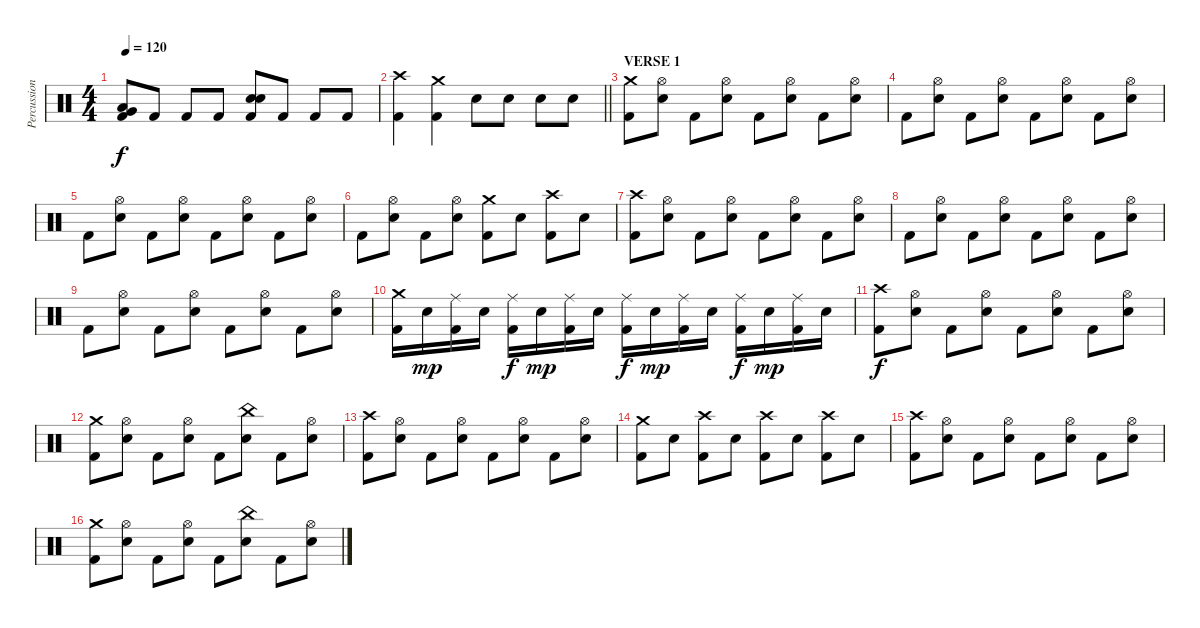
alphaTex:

\track ("Percussion" "Percussion") {instrument percussion}
\staff {score}
\articulation defaults
\ts (4 4)
\tempo 120
\clef neutral
\ks c
("Low Tom (hit)" "Very Low Tom (hit)" "Kick (hit) 2").8{bu 120 dy f} "Kick (hit) 2".8 "Kick (hit) 2".8 "Kick (hit) 2".8 ("Electric Snare (hit)" "Electric Snare (hit)" "Kick (hit) 2").8{bu 120} "Kick (hit) 2".8 "Kick (hit) 2".8 "Kick (hit) 2".8 |
\barLineRight lightlight
("Crash high (hit)" "Kick (hit) 2").4 ("Crash medium (hit)" "Kick (hit) 2").4 "Electric Snare (hit)".8 "Electric Snare (hit)".8 "Electric Snare (hit)".8 "Electric Snare (hit)".8 |
\section ("" "VERSE 1")
("Crash medium (hit)" "Kick (hit) 2").8 ("Hi-Hat (open)" "Electric Snare (hit)").8 "Kick (hit) 2".8 ("Hi-Hat (open)" "Electric Snare (hit)").8 "Kick (hit) 2".8 ("Hi-Hat (open)" "Electric Snare (hit)").8 "Kick (hit) 2".8 ("Hi-Hat (open)" "Electric Snare (hit)").8 |
"Kick (hit) 2".8 ("Hi-Hat (open)" "Electric Snare (hit)").8 "Kick (hit) 2".8 ("Hi-Hat (open)" "Electric Snare (hit)").8 "Kick (hit) 2".8 ("Hi-Hat (open)" "Electric Snare (hit)").8 "Kick (hit) 2".8 ("Hi-Hat (open)" "Electric Snare (hit)").8 |
"Kick (hit) 2".8 ("Hi-Hat (open)" "Electric Snare (hit)").8 "Kick (hit) 2".8 ("Hi-Hat (open)" "Electric Snare (hit)").8 "Kick (hit) 2".8 ("Hi-Hat (open)" "Electric Snare (hit)").8 "Kick (hit) 2".8 ("Hi-Hat (open)" "Electric Snare (hit)").8 |
"Kick (hit) 2".8 ("Hi-Hat (open)" "Electric Snare (hit)").8 "Kick (hit) 2".8 ("Hi-Hat (open)" "Electric Snare (hit)").8 ("Crash medium (hit)" "Kick (hit) 2").8 "Electric Snare (hit)".8 ("Crash high (hit)" "Kick (hit) 2").8 "Electric Snare (hit)".8 |
("Crash high (hit)" "Kick (hit) 2").8 ("Hi-Hat (open)" "Electric Snare (hit)").8 "Kick (hit) 2".8 ("Hi-Hat (open)" "Electric Snare (hit)").8 "Kick (hit) 2".8 ("Hi-Hat (open)" "Electric Snare (hit)").8 "Kick (hit) 2".8 ("Hi-Hat (open)" "Electric Snare (hit)").8 |
"Kick (hit) 2".8 ("Hi-Hat (open)" "Electric Snare (hit)").8 "Kick (hit) 2".8 ("Hi-Hat (open)" "Electric Snare (hit)").8 "Kick (hit) 2".8 ("Hi-Hat (open)" "Electric Snare (hit)").8 "Kick (hit) 2".8 ("Hi-Hat (open)" "Electric Snare (hit)").8 |
"Kick (hit) 2".8 ("Hi-Hat (open)" "Electric Snare (hit)").8 "Kick (hit) 2".8 ("Hi-Hat (open)" "Electric Snare (hit)").8 "Kick (hit) 2".8 ("Hi-Hat (open)" "Electric Snare (hit)").8 "Kick (hit) 2".8 ("Hi-Hat (open)" "Electric Snare (hit)").8 |
("Crash medium (hit)" "Kick (hit) 2").16 "Electric Snare (hit)".16{dy mp} ("Ride (middle)" "Kick (hit) 2").16 "Electric Snare (hit)".16 ("Ride (middle)" "Kick (hit) 2").16{dy f} "Electric Snare (hit)".16{dy mp} ("Ride (middle)" "Kick (hit) 2").16 "Electric Snare (hit)".16 ("Ride (middle)" "Kick (hit) 2").16{dy f} "Electric Snare (hit)".16{dy mp} ("Ride (middle)" "Kick (hit) 2").16 "Electric Snare (hit)".16 ("Ride (middle)" "Kick (hit) 2").16{dy f} "Electric Snare (hit)".16{dy mp} ("Ride (middle)" "Kick (hit) 2").16 "Electric Snare (hit)".16 |
("Crash high (hit)" "Kick (hit) 2").8{dy f} ("Hi-Hat (open)" "Electric Snare (hit)").8 "Kick (hit) 2".8 ("Hi-Hat (open)" "Electric Snare (hit)").8 "Kick (hit) 2".8 ("Hi-Hat (open)" "Electric Snare (hit)").8 "Kick (hit) 2".8 ("Hi-Hat (open)" "Electric Snare (hit)").8 |
("Crash medium (hit)" "Kick (hit) 2").8 ("Hi-Hat (open)" "Electric Snare (hit)").8 "Kick (hit) 2".8 ("Hi-Hat (open)" "Electric Snare (hit)").8 "Kick (hit) 2".8 ("China (hit)" "Electric Snare (hit)").8 "Kick (hit) 2".8 ("Hi-Hat (open)" "Electric Snare (hit)").8 |
("Crash high (hit)" "Kick (hit) 2").8 ("Hi-Hat (open)" "Electric Snare (hit)").8 "Kick (hit) 2".8 ("Hi-Hat (open)" "Electric Snare (hit)").8 "Kick (hit) 2".8 ("Hi-Hat (open)" "Electric Snare (hit)").8 "Kick (hit) 2".8 ("Hi-Hat (open)" "Electric Snare (hit)").8 |
("Crash medium (hit)" "Kick (hit) 2").8 "Electric Snare (hit)".8 ("Crash high (hit)" "Kick (hit) 2").8 "Electric Snare (hit)".8 ("Crash high (hit)" "Kick (hit) 2").8 "Electric Snare (hit)".8 ("Crash high (hit)" "Kick (hit) 2").8 "Electric Snare (hit)".8 |
("Crash high (hit)" "Kick (hit) 2").8 ("Hi-Hat (open)" "Electric Snare (hit)").8 "Kick (hit) 2".8 ("Hi-Hat (open)" "Electric Snare (hit)").8 "Kick (hit) 2".8 ("Hi-Hat (open)" "Electric Snare (hit)").8 "Kick (hit) 2".8 ("Hi-Hat (open)" "Electric Snare (hit)").8 |
("Crash medium (hit)" "Kick (hit) 2").8 ("Hi-Hat (open)" "Electric Snare (hit)").8 "Kick (hit) 2".8 ("Hi-Hat (open)" "Electric Snare (hit)").8 "Kick (hit) 2".8 ("China (hit)" "Electric Snare (hit)").8 "Kick (hit) 2".8 ("Hi-Hat (open)" "Electric Snare (hit)").8
